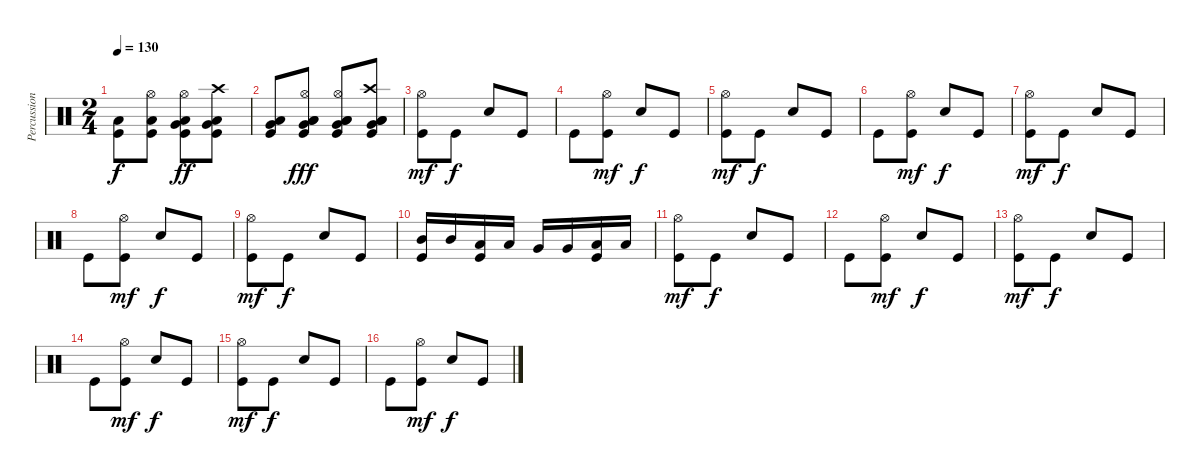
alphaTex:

\track ("Percussion" "Percussion") {instrument percussion}
\staff {score}
\articulation defaults
\ts (2 4)
\tempo 130
\clef neutral
\ks c
("Low Floor Tom (hit)" "Kick (hit)").8{dy f} ("Hi-Hat (open)" "Low Floor Tom (hit)" "Kick (hit)").8 ("Hi-Hat (open)" "Low Floor Tom (hit)" "Kick (hit)" "Very Low Tom (hit)").8{dy ff} ("Crash high (hit)" "Low Floor Tom (hit)" "Kick (hit)" "Very Low Tom (hit)").8 |
("Low Floor Tom (hit)" "Kick (hit)" "Very Low Tom (hit)").8 ("Hi-Hat (open)" "Low Floor Tom (hit)" "Kick (hit)" "Very Low Tom (hit)" "Low Tom (hit)").8{dy fff} ("Hi-Hat (open)" "Low Floor Tom (hit)" "Kick (hit)" "Very Low Tom (hit)" "Low Tom (hit)").8 ("Crash high (hit)" "Low Floor Tom (hit)" "Kick (hit)" "Very Low Tom (hit)" "Low Tom (hit)").8 |
("Hi-Hat (open)" "Kick (hit)").8{dy mf} "Kick (hit)".8{dy f} "Snare (hit) 2".8 "Kick (hit)".8 |
"Kick (hit)".8 ("Hi-Hat (open)" "Kick (hit)").8{dy mf} "Snare (hit) 2".8{dy f} "Kick (hit)".8 |
("Hi-Hat (open)" "Kick (hit)").8{dy mf} "Kick (hit)".8{dy f} "Snare (hit) 2".8 "Kick (hit)".8 |
"Kick (hit)".8 ("Hi-Hat (open)" "Kick (hit)").8{dy mf} "Snare (hit) 2".8{dy f} "Kick (hit)".8 |
("Hi-Hat (open)" "Kick (hit)").8{dy mf} "Kick (hit)".8{dy f} "Snare (hit) 2".8 "Kick (hit)".8 |
"Kick (hit)".8 ("Hi-Hat (open)" "Kick (hit)").8{dy mf} "Snare (hit) 2".8{dy f} "Kick (hit)".8 |
("Hi-Hat (open)" "Kick (hit)").8{dy mf} "Kick (hit)".8{dy f} "Snare (hit) 2".8 "Kick (hit)".8 |
("Kick (hit)" "Mid Tom (hit)").16 "Mid Tom (hit)".16 ("Kick (hit)" "Low Tom (hit)").16 "Low Tom (hit)".16 "Very Low Tom (hit)".16 "Very Low Tom (hit)".16 ("Kick (hit)" "Low Floor Tom (hit)").16 "Low Floor Tom (hit)".16 |
("Hi-Hat (open)" "Kick (hit)").8{dy mf} "Kick (hit)".8{dy f} "Snare (hit) 2".8 "Kick (hit)".8 |
"Kick (hit)".8 ("Hi-Hat (open)" "Kick (hit)").8{dy mf} "Snare (hit) 2".8{dy f} "Kick (hit)".8 |
("Hi-Hat (open)" "Kick (hit)").8{dy mf} "Kick (hit)".8{dy f} "Snare (hit) 2".8 "Kick (hit)".8 |
"Kick (hit)".8 ("Hi-Hat (open)" "Kick (hit)").8{dy mf} "Snare (hit) 2".8{dy f} "Kick (hit)".8 |
("Hi-Hat (open)" "Kick (hit)").8{dy mf} "Kick (hit)".8{dy f} "Snare (hit) 2".8 "Kick (hit)".8 |
"Kick (hit)".8 ("Hi-Hat (open)" "Kick (hit)").8{dy mf} "Snare (hit) 2".8{dy f} "Kick (hit)".8
